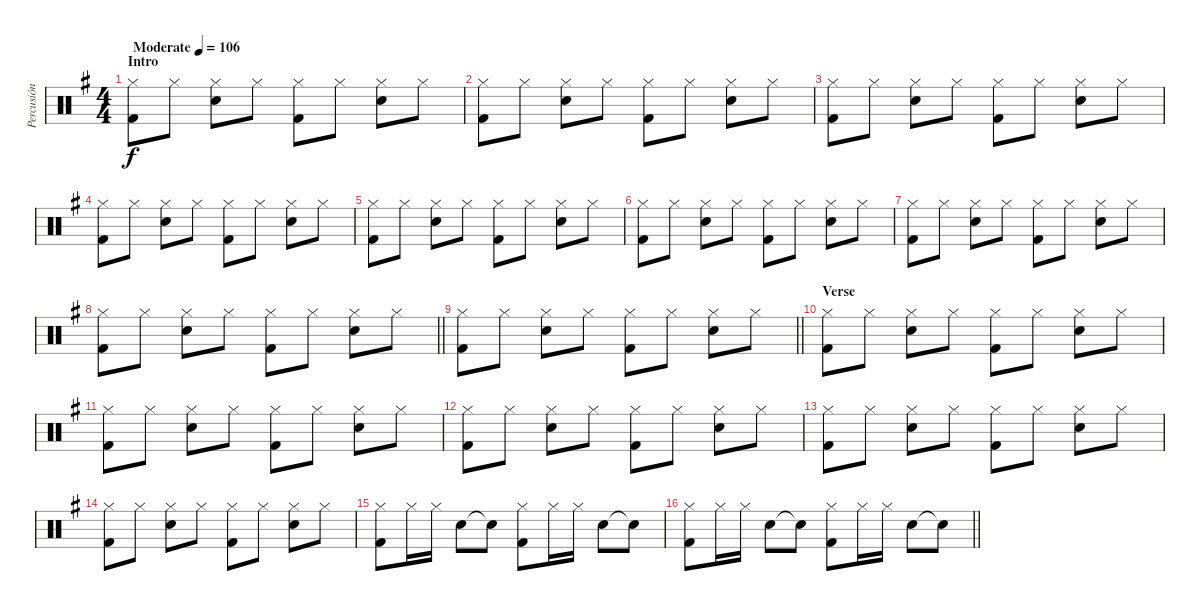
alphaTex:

\track ("Percusión" "Percusión") {instrument percussion}
\staff {score}
\articulation defaults
\ts (4 4)
\section ("" "Intro")
\tempo (106 "Moderate")
\clef neutral
\ks g
("Kick (hit) 2" "Hi-Hat (closed)").8{dy f} "Hi-Hat (closed)".8 ("Electric Snare (hit)" "Hi-Hat (closed)").8 "Hi-Hat (closed)".8 ("Kick (hit) 2" "Hi-Hat (closed)").8 "Hi-Hat (closed)".8 ("Electric Snare (hit)" "Hi-Hat (closed)").8 "Hi-Hat (closed)".8 |
("Kick (hit) 2" "Hi-Hat (closed)").8 "Hi-Hat (closed)".8 ("Electric Snare (hit)" "Hi-Hat (closed)").8 "Hi-Hat (closed)".8 ("Kick (hit) 2" "Hi-Hat (closed)").8 "Hi-Hat (closed)".8 ("Electric Snare (hit)" "Hi-Hat (closed)").8 "Hi-Hat (closed)".8 |
("Kick (hit) 2" "Hi-Hat (closed)").8 "Hi-Hat (closed)".8 ("Electric Snare (hit)" "Hi-Hat (closed)").8 "Hi-Hat (closed)".8 ("Kick (hit) 2" "Hi-Hat (closed)").8 "Hi-Hat (closed)".8 ("Electric Snare (hit)" "Hi-Hat (closed)").8 "Hi-Hat (closed)".8 |
("Kick (hit) 2" "Hi-Hat (closed)").8 "Hi-Hat (closed)".8 ("Electric Snare (hit)" "Hi-Hat (closed)").8 "Hi-Hat (closed)".8 ("Kick (hit) 2" "Hi-Hat (closed)").8 "Hi-Hat (closed)".8 ("Electric Snare (hit)" "Hi-Hat (closed)").8 "Hi-Hat (closed)".8 |
("Kick (hit) 2" "Hi-Hat (closed)").8 "Hi-Hat (closed)".8 ("Electric Snare (hit)" "Hi-Hat (closed)").8 "Hi-Hat (closed)".8 ("Kick (hit) 2" "Hi-Hat (closed)").8 "Hi-Hat (closed)".8 ("Electric Snare (hit)" "Hi-Hat (closed)").8 "Hi-Hat (closed)".8 |
("Kick (hit) 2" "Hi-Hat (closed)").8 "Hi-Hat (closed)".8 ("Electric Snare (hit)" "Hi-Hat (closed)").8 "Hi-Hat (closed)".8 ("Kick (hit) 2" "Hi-Hat (closed)").8 "Hi-Hat (closed)".8 ("Electric Snare (hit)" "Hi-Hat (closed)").8 "Hi-Hat (closed)".8 |
("Kick (hit) 2" "Hi-Hat (closed)").8 "Hi-Hat (closed)".8 ("Electric Snare (hit)" "Hi-Hat (closed)").8 "Hi-Hat (closed)".8 ("Kick (hit) 2" "Hi-Hat (closed)").8 "Hi-Hat (closed)".8 ("Electric Snare (hit)" "Hi-Hat (closed)").8 "Hi-Hat (closed)".8 |
\barLineRight lightlight
("Kick (hit) 2" "Hi-Hat (closed)").8 "Hi-Hat (closed)".8 ("Electric Snare (hit)" "Hi-Hat (closed)").8 "Hi-Hat (closed)".8 ("Kick (hit) 2" "Hi-Hat (closed)").8 "Hi-Hat (closed)".8 ("Electric Snare (hit)" "Hi-Hat (closed)").8 "Hi-Hat (closed)".8 |
\barLineRight lightlight
("Kick (hit) 2" "Hi-Hat (closed)").8 "Hi-Hat (closed)".8 ("Electric Snare (hit)" "Hi-Hat (closed)").8 "Hi-Hat (closed)".8 ("Kick (hit) 2" "Hi-Hat (closed)").8 "Hi-Hat (closed)".8 ("Electric Snare (hit)" "Hi-Hat (closed)").8 "Hi-Hat (closed)".8 |
\section ("" "Verse")
("Kick (hit) 2" "Hi-Hat (closed)").8 "Hi-Hat (closed)".8 ("Electric Snare (hit)" "Hi-Hat (closed)").8 "Hi-Hat (closed)".8 ("Kick (hit) 2" "Hi-Hat (closed)").8 "Hi-Hat (closed)".8 ("Electric Snare (hit)" "Hi-Hat (closed)").8 "Hi-Hat (closed)".8 |
("Kick (hit) 2" "Hi-Hat (closed)").8 "Hi-Hat (closed)".8 ("Electric Snare (hit)" "Hi-Hat (closed)").8 "Hi-Hat (closed)".8 ("Kick (hit) 2" "Hi-Hat (closed)").8 "Hi-Hat (closed)".8 ("Electric Snare (hit)" "Hi-Hat (closed)").8 "Hi-Hat (closed)".8 |
("Kick (hit) 2" "Hi-Hat (closed)").8 "Hi-Hat (closed)".8 ("Electric Snare (hit)" "Hi-Hat (closed)").8 "Hi-Hat (closed)".8 ("Kick (hit) 2" "Hi-Hat (closed)").8 "Hi-Hat (closed)".8 ("Electric Snare (hit)" "Hi-Hat (closed)").8 "Hi-Hat (closed)".8 |
("Kick (hit) 2" "Hi-Hat (closed)").8 "Hi-Hat (closed)".8 ("Electric Snare (hit)" "Hi-Hat (closed)").8 "Hi-Hat (closed)".8 ("Kick (hit) 2" "Hi-Hat (closed)").8 "Hi-Hat (closed)".8 ("Electric Snare (hit)" "Hi-Hat (closed)").8 "Hi-Hat (closed)".8 |
("Kick (hit) 2" "Hi-Hat (closed)").8 "Hi-Hat (closed)".8 ("Electric Snare (hit)" "Hi-Hat (closed)").8 "Hi-Hat (closed)".8 ("Kick (hit) 2" "Hi-Hat (closed)").8 "Hi-Hat (closed)".8 ("Electric Snare (hit)" "Hi-Hat (closed)").8 "Hi-Hat (closed)".8 |
("Kick (hit) 2" "Hi-Hat (closed)").8 "Hi-Hat (closed)".16 "Hi-Hat (closed)".16 "Electric Snare (hit)".8 "Electric Snare (hit)"{t}.8 ("Kick (hit) 2" "Hi-Hat (closed)").8 "Hi-Hat (closed)".16 "Hi-Hat (closed)".16 "Electric Snare (hit)".8 "Electric Snare (hit)"{t}.8 |
\barLineRight lightlight
("Kick (hit) 2" "Hi-Hat (closed)").8 "Hi-Hat (closed)".16 "Hi-Hat (closed)".16 "Electric Snare (hit)".8 "Electric Snare (hit)"{t}.8 ("Kick (hit) 2" "Hi-Hat (closed)").8 "Hi-Hat (closed)".16 "Hi-Hat (closed)".16 "Electric Snare (hit)".8 "Electric Snare (hit)"{t}.8
